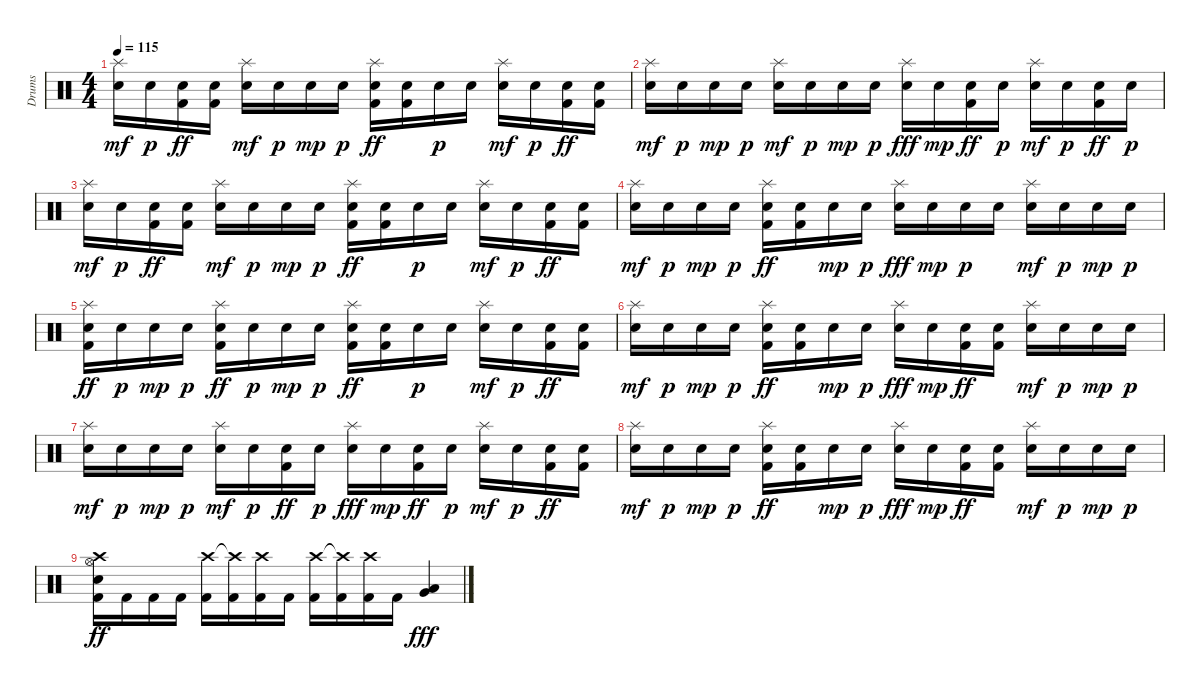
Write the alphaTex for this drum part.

\track ("Drums" "Drums") {instrument percussion}
\staff {score}
\articulation defaults
\ts (4 4)
\tempo 115
\clef neutral
\ks c
("Splash (hit)" "Snare (hit) 2").16{dy mf} "Snare (hit) 2".16{dy p} ("Snare (hit) 2" "Kick (hit) 2").16{dy ff} ("Snare (hit) 2" "Kick (hit) 2").16 ("Splash (hit)" "Snare (hit) 2").16{dy mf} "Snare (hit) 2".16{dy p} "Snare (hit) 2".16{dy mp} "Snare (hit) 2".16{dy p} ("Splash (hit)" "Snare (hit) 2" "Kick (hit) 2").16{dy ff} ("Snare (hit) 2" "Kick (hit) 2").16 "Snare (hit) 2".16{dy p} "Snare (hit) 2".16 ("Splash (hit)" "Snare (hit) 2").16{dy mf} "Snare (hit) 2".16{dy p} ("Snare (hit) 2" "Kick (hit) 2").16{dy ff} ("Snare (hit) 2" "Kick (hit) 2").16 |
("Splash (hit)" "Snare (hit) 2").16{dy mf} "Snare (hit) 2".16{dy p} "Snare (hit) 2".16{dy mp} "Snare (hit) 2".16{dy p} ("Splash (hit)" "Snare (hit) 2").16{dy mf} "Snare (hit) 2".16{dy p} "Snare (hit) 2".16{dy mp} "Snare (hit) 2".16{dy p} ("Splash (hit)" "Snare (hit) 2").16{dy fff} "Snare (hit) 2".16{dy mp} ("Snare (hit) 2" "Kick (hit) 2").16{dy ff} "Snare (hit) 2".16{dy p} ("Splash (hit)" "Snare (hit) 2").16{dy mf} "Snare (hit) 2".16{dy p} ("Snare (hit) 2" "Kick (hit) 2").16{dy ff} "Snare (hit) 2".16{dy p} |
("Splash (hit)" "Snare (hit) 2").16{dy mf} "Snare (hit) 2".16{dy p} ("Snare (hit) 2" "Kick (hit) 2").16{dy ff} ("Snare (hit) 2" "Kick (hit) 2").16 ("Splash (hit)" "Snare (hit) 2").16{dy mf} "Snare (hit) 2".16{dy p} "Snare (hit) 2".16{dy mp} "Snare (hit) 2".16{dy p} ("Splash (hit)" "Snare (hit) 2" "Kick (hit) 2").16{dy ff} ("Snare (hit) 2" "Kick (hit) 2").16 "Snare (hit) 2".16{dy p} "Snare (hit) 2".16 ("Splash (hit)" "Snare (hit) 2").16{dy mf} "Snare (hit) 2".16{dy p} ("Snare (hit) 2" "Kick (hit) 2").16{dy ff} ("Snare (hit) 2" "Kick (hit) 2").16 |
("Splash (hit)" "Snare (hit) 2").16{dy mf} "Snare (hit) 2".16{dy p} "Snare (hit) 2".16{dy mp} "Snare (hit) 2".16{dy p} ("Splash (hit)" "Snare (hit) 2" "Kick (hit) 2").16{dy ff} ("Snare (hit) 2" "Kick (hit) 2").16 "Snare (hit) 2".16{dy mp} "Snare (hit) 2".16{dy p} ("Splash (hit)" "Snare (hit) 2").16{dy fff} "Snare (hit) 2".16{dy mp} "Snare (hit) 2".16{dy p} "Snare (hit) 2".16 ("Splash (hit)" "Snare (hit) 2").16{dy mf} "Snare (hit) 2".16{dy p} "Snare (hit) 2".16{dy mp} "Snare (hit) 2".16{dy p} |
("Splash (hit)" "Snare (hit) 2" "Kick (hit) 2").16{dy ff} "Snare (hit) 2".16{dy p} "Snare (hit) 2".16{dy mp} "Snare (hit) 2".16{dy p} ("Splash (hit)" "Snare (hit) 2" "Kick (hit) 2").16{dy ff} "Snare (hit) 2".16{dy p} "Snare (hit) 2".16{dy mp} "Snare (hit) 2".16{dy p} ("Splash (hit)" "Snare (hit) 2" "Kick (hit) 2").16{dy ff} ("Snare (hit) 2" "Kick (hit) 2").16 "Snare (hit) 2".16{dy p} "Snare (hit) 2".16 ("Splash (hit)" "Snare (hit) 2").16{dy mf} "Snare (hit) 2".16{dy p} ("Snare (hit) 2" "Kick (hit) 2").16{dy ff} ("Snare (hit) 2" "Kick (hit) 2").16 |
("Splash (hit)" "Snare (hit) 2").16{dy mf} "Snare (hit) 2".16{dy p} "Snare (hit) 2".16{dy mp} "Snare (hit) 2".16{dy p} ("Splash (hit)" "Snare (hit) 2" "Kick (hit) 2").16{dy ff} ("Snare (hit) 2" "Kick (hit) 2").16 "Snare (hit) 2".16{dy mp} "Snare (hit) 2".16{dy p} ("Splash (hit)" "Snare (hit) 2").16{dy fff} "Snare (hit) 2".16{dy mp} ("Snare (hit) 2" "Kick (hit) 2").16{dy ff} ("Snare (hit) 2" "Kick (hit) 2").16 ("Splash (hit)" "Snare (hit) 2").16{dy mf} "Snare (hit) 2".16{dy p} "Snare (hit) 2".16{dy mp} "Snare (hit) 2".16{dy p} |
("Splash (hit)" "Snare (hit) 2").16{dy mf} "Snare (hit) 2".16{dy p} "Snare (hit) 2".16{dy mp} "Snare (hit) 2".16{dy p} ("Splash (hit)" "Snare (hit) 2").16{dy mf} "Snare (hit) 2".16{dy p} ("Snare (hit) 2" "Kick (hit) 2").16{dy ff} "Snare (hit) 2".16{dy p} ("Splash (hit)" "Snare (hit) 2").16{dy fff} "Snare (hit) 2".16{dy mp} ("Snare (hit) 2" "Kick (hit) 2").16{dy ff} "Snare (hit) 2".16{dy p} ("Splash (hit)" "Snare (hit) 2").16{dy mf} "Snare (hit) 2".16{dy p} ("Snare (hit) 2" "Kick (hit) 2").16{dy ff} ("Snare (hit) 2" "Kick (hit) 2").16 |
("Splash (hit)" "Snare (hit) 2").16{dy mf} "Snare (hit) 2".16{dy p} "Snare (hit) 2".16{dy mp} "Snare (hit) 2".16{dy p} ("Splash (hit)" "Snare (hit) 2" "Kick (hit) 2").16{dy ff} ("Snare (hit) 2" "Kick (hit) 2").16 "Snare (hit) 2".16{dy mp} "Snare (hit) 2".16{dy p} ("Splash (hit)" "Snare (hit) 2").16{dy fff} "Snare (hit) 2".16{dy mp} ("Snare (hit) 2" "Kick (hit) 2").16{dy ff} ("Snare (hit) 2" "Kick (hit) 2").16 ("Splash (hit)" "Snare (hit) 2").16{dy mf} "Snare (hit) 2".16{dy p} "Snare (hit) 2".16{dy mp} "Snare (hit) 2".16{dy p} |
("Crash high (hit)" "Hi-Hat (open)" "Snare (hit) 2" "Kick (hit) 2").16{dy ff} "Kick (hit) 2".16 "Kick (hit) 2".16 "Kick (hit) 2".16 ("Crash high (hit)" "Kick (hit) 2").16 ("Crash high (hit)"{t} "Kick (hit) 2").16 ("Crash high (hit)" "Kick (hit) 2").16 "Kick (hit) 2".16 ("Crash high (hit)" "Kick (hit) 2").16 ("Crash high (hit)"{t} "Kick (hit) 2").16 ("Crash high (hit)" "Kick (hit) 2").16 "Kick (hit) 2".16 ("Low Tom (hit)" "Very Low Tom (hit)").4{dy fff}
